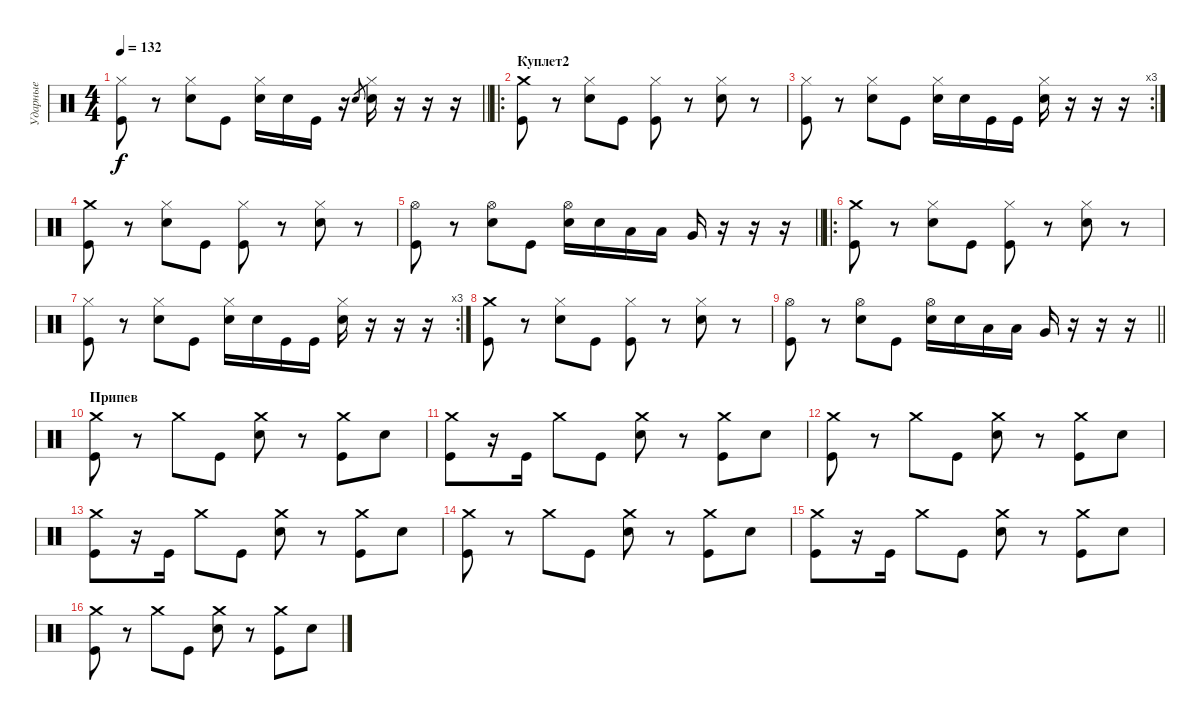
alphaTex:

\track ("Ударные" "Ударные") {instrument percussion}
\staff {score}
\articulation defaults
\ts (4 4)
\tempo 132
\clef neutral
\barLineRight lightlight
\ks c
("Hi-Hat (closed)" "Kick (hit)").8{dy f} r.8 ("Hi-Hat (closed)" "Electric Snare (hit)").8 "Kick (hit)".8 ("Hi-Hat (closed)" "Electric Snare (hit)").16 "Electric Snare (hit)".16 "Kick (hit)".16 r.16 "Electric Snare (hit)".8{gr} ("Hi-Hat (closed)" "Electric Snare (hit)").16 r.16 r.16 r.16 |
\ro
\section ("" "Куплет2")
("Crash medium (hit)" "Kick (hit)").8 r.8 ("Hi-Hat (closed)" "Electric Snare (hit)").8 "Kick (hit)".8 ("Hi-Hat (closed)" "Kick (hit)").8 r.8 ("Hi-Hat (closed)" "Electric Snare (hit)").8 r.8 |
\rc 3
("Hi-Hat (closed)" "Kick (hit)").8 r.8 ("Hi-Hat (closed)" "Electric Snare (hit)").8 "Kick (hit)".8 ("Hi-Hat (closed)" "Electric Snare (hit)").16 "Electric Snare (hit)".16 "Kick (hit)".16 "Kick (hit)".16 ("Hi-Hat (closed)" "Electric Snare (hit)").16 r.16 r.16 r.16 |
("Crash medium (hit)" "Kick (hit)").8 r.8 ("Hi-Hat (closed)" "Electric Snare (hit)").8 "Kick (hit)".8 ("Hi-Hat (closed)" "Kick (hit)").8 r.8 ("Hi-Hat (closed)" "Electric Snare (hit)").8 r.8 |
\barLineRight lightlight
("Hi-Hat (open)" "Kick (hit)").8 r.8 ("Hi-Hat (open)" "Electric Snare (hit)").8 "Kick (hit)".8 ("Hi-Hat (open)" "Electric Snare (hit)").16 "Electric Snare (hit)".16 "Low Tom (hit)".16 "Low Tom (hit)".16 "Very Low Tom (hit)".16 r.16 r.16 r.16 |
\ro
("Crash medium (hit)" "Kick (hit)").8 r.8 ("Hi-Hat (closed)" "Electric Snare (hit)").8 "Kick (hit)".8 ("Hi-Hat (closed)" "Kick (hit)").8 r.8 ("Hi-Hat (closed)" "Electric Snare (hit)").8 r.8 |
\rc 3
("Hi-Hat (closed)" "Kick (hit)").8 r.8 ("Hi-Hat (closed)" "Electric Snare (hit)").8 "Kick (hit)".8 ("Hi-Hat (closed)" "Electric Snare (hit)").16 "Electric Snare (hit)".16 "Kick (hit)".16 "Kick (hit)".16 ("Hi-Hat (closed)" "Electric Snare (hit)").16 r.16 r.16 r.16 |
("Crash medium (hit)" "Kick (hit)").8 r.8 ("Hi-Hat (closed)" "Electric Snare (hit)").8 "Kick (hit)".8 ("Hi-Hat (closed)" "Kick (hit)").8 r.8 ("Hi-Hat (closed)" "Electric Snare (hit)").8 r.8 |
\barLineRight lightlight
("Hi-Hat (open)" "Kick (hit)").8 r.8 ("Hi-Hat (open)" "Electric Snare (hit)").8 "Kick (hit)".8 ("Hi-Hat (open)" "Electric Snare (hit)").16 "Electric Snare (hit)".16 "Low Tom (hit)".16 "Low Tom (hit)".16 "Very Low Tom (hit)".16 r.16 r.16 r.16 |
\section ("" "Припев")
("Crash medium (hit)" "Kick (hit)").8 r.8 "Crash medium (hit)".8 "Kick (hit)".8 ("Crash medium (hit)" "Electric Snare (hit)").8 r.8 ("Crash medium (hit)" "Kick (hit)").8 "Electric Snare (hit)".8 |
("Crash medium (hit)" "Kick (hit)").8 r.16 "Kick (hit)".16 "Crash medium (hit)".8 "Kick (hit)".8 ("Crash medium (hit)" "Electric Snare (hit)").8 r.8 ("Crash medium (hit)" "Kick (hit)").8 "Electric Snare (hit)".8 |
("Crash medium (hit)" "Kick (hit)").8 r.8 "Crash medium (hit)".8 "Kick (hit)".8 ("Crash medium (hit)" "Electric Snare (hit)").8 r.8 ("Crash medium (hit)" "Kick (hit)").8 "Electric Snare (hit)".8 |
("Crash medium (hit)" "Kick (hit)").8 r.16 "Kick (hit)".16 "Crash medium (hit)".8 "Kick (hit)".8 ("Crash medium (hit)" "Electric Snare (hit)").8 r.8 ("Crash medium (hit)" "Kick (hit)").8 "Electric Snare (hit)".8 |
("Crash medium (hit)" "Kick (hit)").8 r.8 "Crash medium (hit)".8 "Kick (hit)".8 ("Crash medium (hit)" "Electric Snare (hit)").8 r.8 ("Crash medium (hit)" "Kick (hit)").8 "Electric Snare (hit)".8 |
("Crash medium (hit)" "Kick (hit)").8 r.16 "Kick (hit)".16 "Crash medium (hit)".8 "Kick (hit)".8 ("Crash medium (hit)" "Electric Snare (hit)").8 r.8 ("Crash medium (hit)" "Kick (hit)").8 "Electric Snare (hit)".8 |
("Crash medium (hit)" "Kick (hit)").8 r.8 "Crash medium (hit)".8 "Kick (hit)".8 ("Crash medium (hit)" "Electric Snare (hit)").8 r.8 ("Crash medium (hit)" "Kick (hit)").8 "Electric Snare (hit)".8
